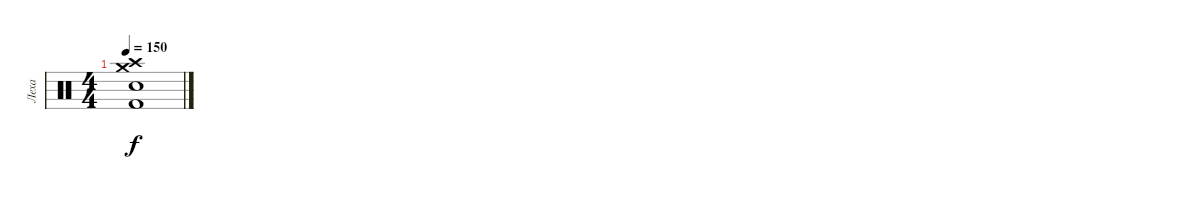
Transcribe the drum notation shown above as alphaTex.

\track ("Леха" "Леха") {instrument percussion}
\staff {score}
\articulation defaults
\ts (4 4)
\tempo 150
\clef neutral
\ks c
("Crash medium (hit)" "Crash high (hit)" "Kick (hit) 2" "Snare (hit) 2").1{dy f}
